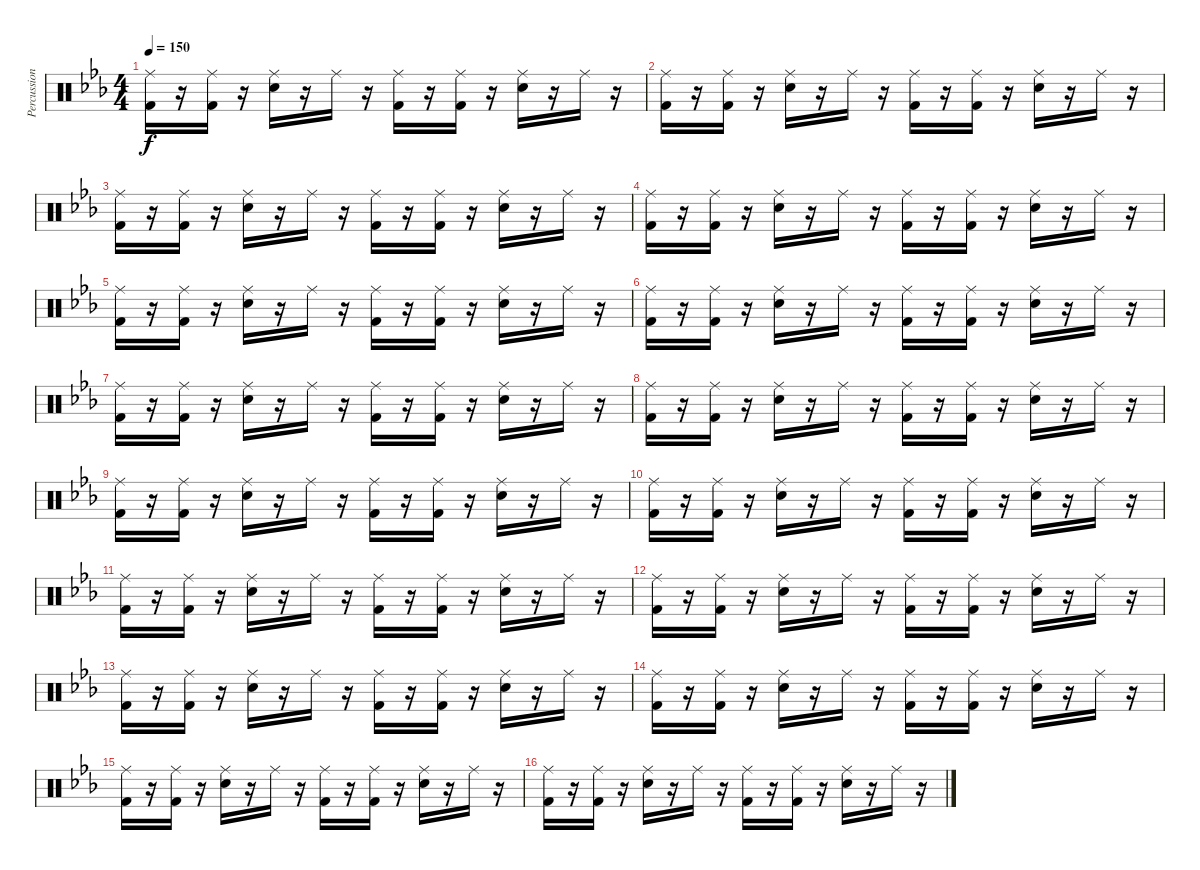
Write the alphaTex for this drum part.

\track ("Percussions" "Percussion") {solo instrument percussion}
\staff {score}
\articulation defaults
\ts (4 4)
\tempo 150
\clef neutral
\ks eb
("Ride (middle)" "Kick (hit) 2").16{dy f} r.16 ("Ride (middle)" "Kick (hit) 2").16 r.16 ("Ride (middle)" "Snare (hit) 2").16 r.16 "Ride (middle)".16 r.16 ("Ride (middle)" "Kick (hit) 2").16 r.16 ("Ride (middle)" "Kick (hit) 2").16 r.16 ("Ride (middle)" "Snare (hit) 2").16 r.16 "Ride (middle)".16 r.16 |
("Ride (middle)" "Kick (hit) 2").16 r.16 ("Ride (middle)" "Kick (hit) 2").16 r.16 ("Ride (middle)" "Snare (hit) 2").16 r.16 "Ride (middle)".16 r.16 ("Ride (middle)" "Kick (hit) 2").16 r.16 ("Ride (middle)" "Kick (hit) 2").16 r.16 ("Ride (middle)" "Snare (hit) 2").16 r.16 "Ride (middle)".16 r.16 |
("Ride (middle)" "Kick (hit) 2").16 r.16 ("Ride (middle)" "Kick (hit) 2").16 r.16 ("Ride (middle)" "Snare (hit) 2").16 r.16 "Ride (middle)".16 r.16 ("Ride (middle)" "Kick (hit) 2").16 r.16 ("Ride (middle)" "Kick (hit) 2").16 r.16 ("Ride (middle)" "Snare (hit) 2").16 r.16 "Ride (middle)".16 r.16 |
("Ride (middle)" "Kick (hit) 2").16 r.16 ("Ride (middle)" "Kick (hit) 2").16 r.16 ("Ride (middle)" "Snare (hit) 2").16 r.16 "Ride (middle)".16 r.16 ("Ride (middle)" "Kick (hit) 2").16 r.16 ("Ride (middle)" "Kick (hit) 2").16 r.16 ("Ride (middle)" "Snare (hit) 2").16 r.16 "Ride (middle)".16 r.16 |
("Ride (middle)" "Kick (hit) 2").16 r.16 ("Ride (middle)" "Kick (hit) 2").16 r.16 ("Ride (middle)" "Snare (hit) 2").16 r.16 "Ride (middle)".16 r.16 ("Ride (middle)" "Kick (hit) 2").16 r.16 ("Ride (middle)" "Kick (hit) 2").16 r.16 ("Ride (middle)" "Snare (hit) 2").16 r.16 "Ride (middle)".16 r.16 |
("Ride (middle)" "Kick (hit) 2").16 r.16 ("Ride (middle)" "Kick (hit) 2").16 r.16 ("Ride (middle)" "Snare (hit) 2").16 r.16 "Ride (middle)".16 r.16 ("Ride (middle)" "Kick (hit) 2").16 r.16 ("Ride (middle)" "Kick (hit) 2").16 r.16 ("Ride (middle)" "Snare (hit) 2").16 r.16 "Ride (middle)".16 r.16 |
("Ride (middle)" "Kick (hit) 2").16 r.16 ("Ride (middle)" "Kick (hit) 2").16 r.16 ("Ride (middle)" "Snare (hit) 2").16 r.16 "Ride (middle)".16 r.16 ("Ride (middle)" "Kick (hit) 2").16 r.16 ("Ride (middle)" "Kick (hit) 2").16 r.16 ("Ride (middle)" "Snare (hit) 2").16 r.16 "Ride (middle)".16 r.16 |
("Ride (middle)" "Kick (hit) 2").16 r.16 ("Ride (middle)" "Kick (hit) 2").16 r.16 ("Ride (middle)" "Snare (hit) 2").16 r.16 "Ride (middle)".16 r.16 ("Ride (middle)" "Kick (hit) 2").16 r.16 ("Ride (middle)" "Kick (hit) 2").16 r.16 ("Ride (middle)" "Snare (hit) 2").16 r.16 "Ride (middle)".16 r.16 |
("Ride (middle)" "Kick (hit) 2").16 r.16 ("Ride (middle)" "Kick (hit) 2").16 r.16 ("Ride (middle)" "Snare (hit) 2").16 r.16 "Ride (middle)".16 r.16 ("Ride (middle)" "Kick (hit) 2").16 r.16 ("Ride (middle)" "Kick (hit) 2").16 r.16 ("Ride (middle)" "Snare (hit) 2").16 r.16 "Ride (middle)".16 r.16 |
("Ride (middle)" "Kick (hit) 2").16 r.16 ("Ride (middle)" "Kick (hit) 2").16 r.16 ("Ride (middle)" "Snare (hit) 2").16 r.16 "Ride (middle)".16 r.16 ("Ride (middle)" "Kick (hit) 2").16 r.16 ("Ride (middle)" "Kick (hit) 2").16 r.16 ("Ride (middle)" "Snare (hit) 2").16 r.16 "Ride (middle)".16 r.16 |
("Ride (middle)" "Kick (hit) 2").16 r.16 ("Ride (middle)" "Kick (hit) 2").16 r.16 ("Ride (middle)" "Snare (hit) 2").16 r.16 "Ride (middle)".16 r.16 ("Ride (middle)" "Kick (hit) 2").16 r.16 ("Ride (middle)" "Kick (hit) 2").16 r.16 ("Ride (middle)" "Snare (hit) 2").16 r.16 "Ride (middle)".16 r.16 |
("Ride (middle)" "Kick (hit) 2").16 r.16 ("Ride (middle)" "Kick (hit) 2").16 r.16 ("Ride (middle)" "Snare (hit) 2").16 r.16 "Ride (middle)".16 r.16 ("Ride (middle)" "Kick (hit) 2").16 r.16 ("Ride (middle)" "Kick (hit) 2").16 r.16 ("Ride (middle)" "Snare (hit) 2").16 r.16 "Ride (middle)".16 r.16 |
("Ride (middle)" "Kick (hit) 2").16 r.16 ("Ride (middle)" "Kick (hit) 2").16 r.16 ("Ride (middle)" "Snare (hit) 2").16 r.16 "Ride (middle)".16 r.16 ("Ride (middle)" "Kick (hit) 2").16 r.16 ("Ride (middle)" "Kick (hit) 2").16 r.16 ("Ride (middle)" "Snare (hit) 2").16 r.16 "Ride (middle)".16 r.16 |
("Ride (middle)" "Kick (hit) 2").16 r.16 ("Ride (middle)" "Kick (hit) 2").16 r.16 ("Ride (middle)" "Snare (hit) 2").16 r.16 "Ride (middle)".16 r.16 ("Ride (middle)" "Kick (hit) 2").16 r.16 ("Ride (middle)" "Kick (hit) 2").16 r.16 ("Ride (middle)" "Snare (hit) 2").16 r.16 "Ride (middle)".16 r.16 |
("Ride (middle)" "Kick (hit) 2").16 r.16 ("Ride (middle)" "Kick (hit) 2").16 r.16 ("Ride (middle)" "Snare (hit) 2").16 r.16 "Ride (middle)".16 r.16 ("Ride (middle)" "Kick (hit) 2").16 r.16 ("Ride (middle)" "Kick (hit) 2").16 r.16 ("Ride (middle)" "Snare (hit) 2").16 r.16 "Ride (middle)".16 r.16 |
("Ride (middle)" "Kick (hit) 2").16 r.16 ("Ride (middle)" "Kick (hit) 2").16 r.16 ("Ride (middle)" "Snare (hit) 2").16 r.16 "Ride (middle)".16 r.16 ("Ride (middle)" "Kick (hit) 2").16 r.16 ("Ride (middle)" "Kick (hit) 2").16 r.16 ("Ride (middle)" "Snare (hit) 2").16 r.16 "Ride (middle)".16 r.16
